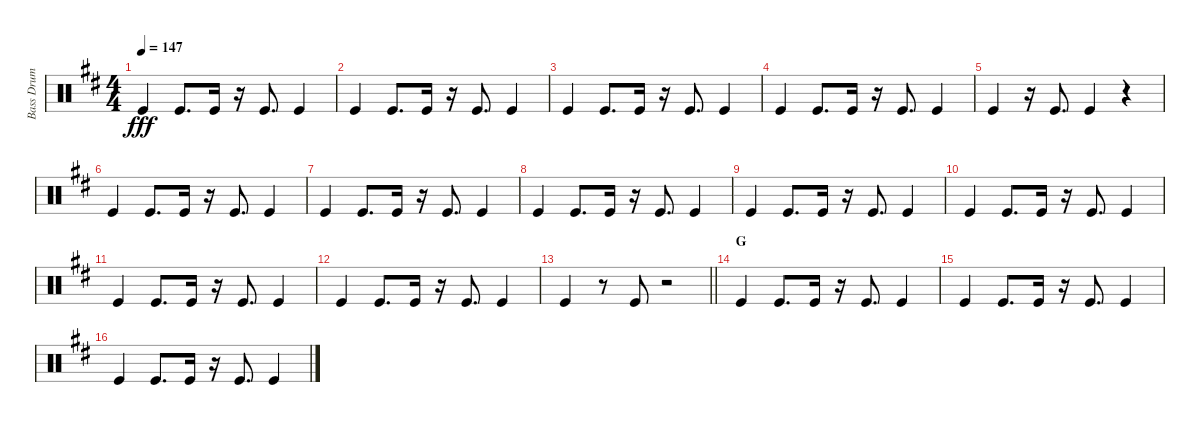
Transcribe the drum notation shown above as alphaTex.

\track ("Bass Drum" "Bass Drum") {instrument percussion}
\staff {score}
\articulation defaults
\ts (4 4)
\tempo 147
\clef neutral
\ks d "Kick (hit)".4{dy fff} "Kick (hit)".8{d} "Kick (hit)".16
r.16 "Kick (hit)".8{d} "Kick (hit)".4 |
"Kick (hit)".4 "Kick (hit)".8{d} "Kick (hit)".16 r.16 "Kick (hit)".8{d} "Kick (hit)".4 |
"Kick (hit)".4 "Kick (hit)".8{d} "Kick (hit)".16 r.16 "Kick (hit)".8{d} "Kick (hit)".4 |
"Kick (hit)".4 "Kick (hit)".8{d} "Kick (hit)".16 r.16 "Kick (hit)".8{d} "Kick (hit)".4 |
"Kick (hit)".4 r.16 "Kick (hit)".8{d} "Kick (hit)".4 r.4 |
"Kick (hit)".4 "Kick (hit)".8{d} "Kick (hit)".16 r.16 "Kick (hit)".8{d} "Kick (hit)".4 |
"Kick (hit)".4 "Kick (hit)".8{d} "Kick (hit)".16 r.16 "Kick (hit)".8{d} "Kick (hit)".4 |
"Kick (hit)".4 "Kick (hit)".8{d} "Kick (hit)".16 r.16 "Kick (hit)".8{d} "Kick (hit)".4 |
"Kick (hit)".4 "Kick (hit)".8{d} "Kick (hit)".16 r.16 "Kick (hit)".8{d} "Kick (hit)".4 |
"Kick (hit)".4 "Kick (hit)".8{d} "Kick (hit)".16 r.16 "Kick (hit)".8{d} "Kick (hit)".4 |
"Kick (hit)".4 "Kick (hit)".8{d} "Kick (hit)".16 r.16 "Kick (hit)".8{d} "Kick (hit)".4 |
"Kick (hit)".4 "Kick (hit)".8{d} "Kick (hit)".16 r.16 "Kick (hit)".8{d} "Kick (hit)".4 |
\barLineRight lightlight "Kick (hit)".4
r.8 "Kick (hit)".8 r.2 |
\section ("" "G")
"Kick (hit)".4 "Kick (hit)".8{d} "Kick (hit)".16 r.16 "Kick (hit)".8{d} "Kick (hit)".4 |
"Kick (hit)".4 "Kick (hit)".8{d} "Kick (hit)".16 r.16 "Kick (hit)".8{d} "Kick (hit)".4 |
"Kick (hit)".4 "Kick (hit)".8{d} "Kick (hit)".16 r.16 "Kick (hit)".8{d} "Kick (hit)".4
